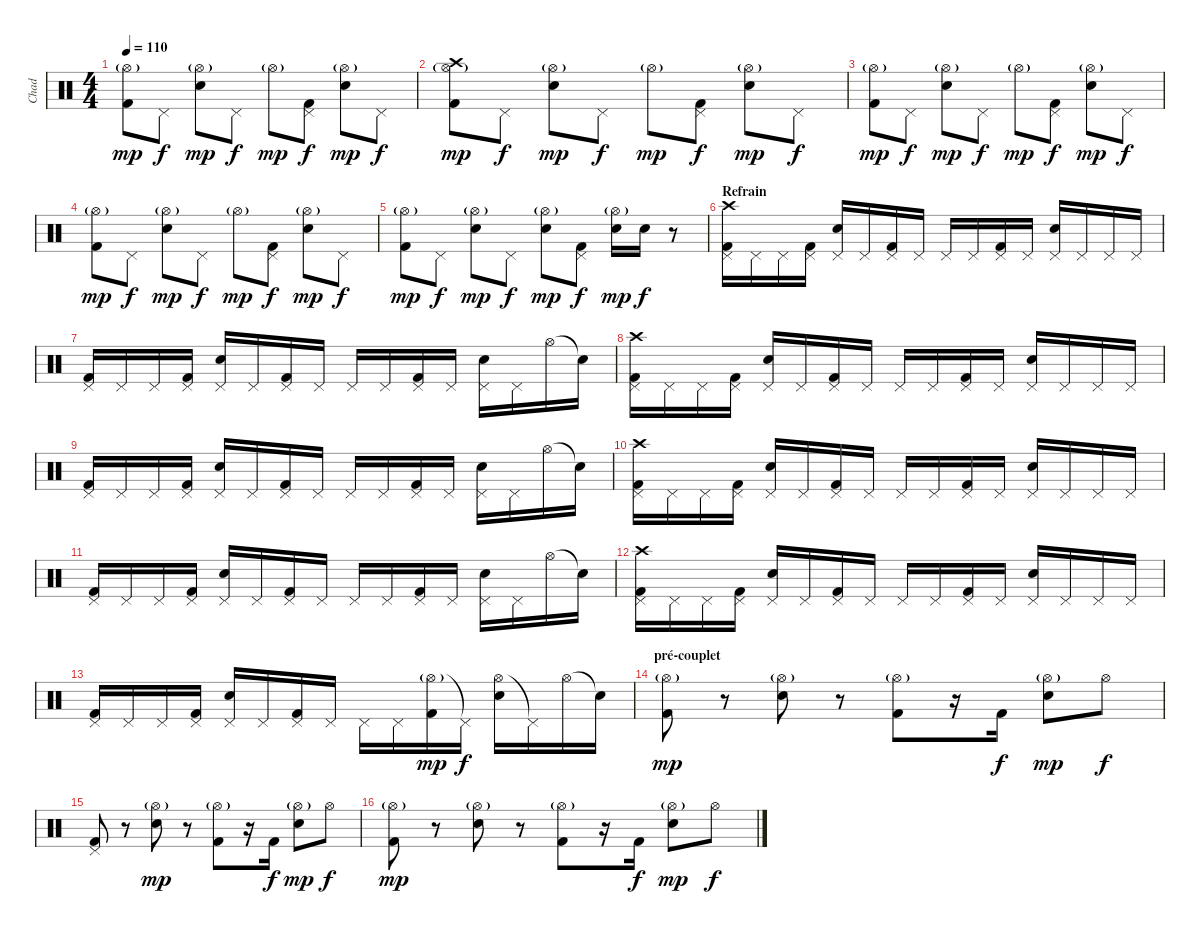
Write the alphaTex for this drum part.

\track ("Chad" "Chad") {instrument percussion}
\staff {score}
\articulation defaults
\ts (4 4)
\tempo 110
\clef neutral
\ks c
("Hi-Hat (open)"{g} "Kick (hit) 2").8{dy mp} "Pedal Hi-Hat (hit)".8{dy f} ("Hi-Hat (open)"{g} "Electric Snare (hit)").8{dy mp} "Pedal Hi-Hat (hit)".8{dy f} "Hi-Hat (open)"{g}.8{dy mp} ("Pedal Hi-Hat (hit)" "Kick (hit) 2").8{dy f} ("Hi-Hat (open)"{g} "Electric Snare (hit)").8{dy mp} "Pedal Hi-Hat (hit)".8{dy f} |
("Crash high (hit)" "Hi-Hat (open)"{g} "Kick (hit) 2").8{dy mp} "Pedal Hi-Hat (hit)".8{dy f} ("Hi-Hat (open)"{g} "Electric Snare (hit)").8{dy mp} "Pedal Hi-Hat (hit)".8{dy f} "Hi-Hat (open)"{g}.8{dy mp} ("Pedal Hi-Hat (hit)" "Kick (hit) 2").8{dy f} ("Hi-Hat (open)"{g} "Electric Snare (hit)").8{dy mp} "Pedal Hi-Hat (hit)".8{dy f} |
("Hi-Hat (open)"{g} "Kick (hit) 2").8{dy mp} "Pedal Hi-Hat (hit)".8{dy f} ("Hi-Hat (open)"{g} "Electric Snare (hit)").8{dy mp} "Pedal Hi-Hat (hit)".8{dy f} "Hi-Hat (open)"{g}.8{dy mp} ("Pedal Hi-Hat (hit)" "Kick (hit) 2").8{dy f} ("Hi-Hat (open)"{g} "Electric Snare (hit)").8{dy mp} "Pedal Hi-Hat (hit)".8{dy f} |
("Hi-Hat (open)"{g} "Kick (hit) 2").8{dy mp} "Pedal Hi-Hat (hit)".8{dy f} ("Hi-Hat (open)"{g} "Electric Snare (hit)").8{dy mp} "Pedal Hi-Hat (hit)".8{dy f} "Hi-Hat (open)"{g}.8{dy mp} ("Pedal Hi-Hat (hit)" "Kick (hit) 2").8{dy f} ("Hi-Hat (open)"{g} "Electric Snare (hit)").8{dy mp} "Pedal Hi-Hat (hit)".8{dy f} |
("Hi-Hat (open)"{g} "Kick (hit) 2").8{dy mp} "Pedal Hi-Hat (hit)".8{dy f} ("Hi-Hat (open)"{g} "Electric Snare (hit)").8{dy mp} "Pedal Hi-Hat (hit)".8{dy f} ("Hi-Hat (open)"{g} "Electric Snare (hit)").8{dy mp} ("Pedal Hi-Hat (hit)" "Kick (hit) 2").8{dy f} ("Hi-Hat (open)"{g} "Electric Snare (hit)").16{dy mp} "Electric Snare (hit)".16{dy f} r.8 |
\section ("" "Refrain")
("Crash high (hit)" "Pedal Hi-Hat (hit)" "Kick (hit) 2").16 "Pedal Hi-Hat (hit)".16 "Pedal Hi-Hat (hit)".16 ("Pedal Hi-Hat (hit)" "Kick (hit) 2").16 ("Pedal Hi-Hat (hit)" "Electric Snare (hit)").16 "Pedal Hi-Hat (hit)".16 ("Pedal Hi-Hat (hit)" "Kick (hit) 2").16 "Pedal Hi-Hat (hit)".16 "Pedal Hi-Hat (hit)".16 "Pedal Hi-Hat (hit)".16 ("Pedal Hi-Hat (hit)" "Kick (hit) 2").16 "Pedal Hi-Hat (hit)".16 ("Pedal Hi-Hat (hit)" "Electric Snare (hit)").16 "Pedal Hi-Hat (hit)".16 "Pedal Hi-Hat (hit)".16 "Pedal Hi-Hat (hit)".16 |
("Pedal Hi-Hat (hit)" "Kick (hit) 2").16 "Pedal Hi-Hat (hit)".16 "Pedal Hi-Hat (hit)".16 ("Pedal Hi-Hat (hit)" "Kick (hit) 2").16 ("Pedal Hi-Hat (hit)" "Electric Snare (hit)").16 "Pedal Hi-Hat (hit)".16 ("Pedal Hi-Hat (hit)" "Kick (hit) 2").16 "Pedal Hi-Hat (hit)".16 "Pedal Hi-Hat (hit)".16 "Pedal Hi-Hat (hit)".16 ("Pedal Hi-Hat (hit)" "Kick (hit) 2").16 "Pedal Hi-Hat (hit)".16 ("Pedal Hi-Hat (hit)" "Electric Snare (hit)").16 "Pedal Hi-Hat (hit)".16 "Hi-Hat (open)".16 "Snare (hit)"{t}.16 |
("Crash high (hit)" "Pedal Hi-Hat (hit)" "Kick (hit) 2").16 "Pedal Hi-Hat (hit)".16 "Pedal Hi-Hat (hit)".16 ("Pedal Hi-Hat (hit)" "Kick (hit) 2").16 ("Pedal Hi-Hat (hit)" "Electric Snare (hit)").16 "Pedal Hi-Hat (hit)".16 ("Pedal Hi-Hat (hit)" "Kick (hit) 2").16 "Pedal Hi-Hat (hit)".16 "Pedal Hi-Hat (hit)".16 "Pedal Hi-Hat (hit)".16 ("Pedal Hi-Hat (hit)" "Kick (hit) 2").16 "Pedal Hi-Hat (hit)".16 ("Pedal Hi-Hat (hit)" "Electric Snare (hit)").16 "Pedal Hi-Hat (hit)".16 "Pedal Hi-Hat (hit)".16 "Pedal Hi-Hat (hit)".16 |
("Pedal Hi-Hat (hit)" "Kick (hit) 2").16 "Pedal Hi-Hat (hit)".16 "Pedal Hi-Hat (hit)".16 ("Pedal Hi-Hat (hit)" "Kick (hit) 2").16 ("Pedal Hi-Hat (hit)" "Electric Snare (hit)").16 "Pedal Hi-Hat (hit)".16 ("Pedal Hi-Hat (hit)" "Kick (hit) 2").16 "Pedal Hi-Hat (hit)".16 "Pedal Hi-Hat (hit)".16 "Pedal Hi-Hat (hit)".16 ("Pedal Hi-Hat (hit)" "Kick (hit) 2").16 "Pedal Hi-Hat (hit)".16 ("Pedal Hi-Hat (hit)" "Electric Snare (hit)").16 "Pedal Hi-Hat (hit)".16 "Hi-Hat (open)".16 "Snare (hit)"{t}.16 |
("Crash high (hit)" "Pedal Hi-Hat (hit)" "Kick (hit) 2").16 "Pedal Hi-Hat (hit)".16 "Pedal Hi-Hat (hit)".16 ("Pedal Hi-Hat (hit)" "Kick (hit) 2").16 ("Pedal Hi-Hat (hit)" "Electric Snare (hit)").16 "Pedal Hi-Hat (hit)".16 ("Pedal Hi-Hat (hit)" "Kick (hit) 2").16 "Pedal Hi-Hat (hit)".16 "Pedal Hi-Hat (hit)".16 "Pedal Hi-Hat (hit)".16 ("Pedal Hi-Hat (hit)" "Kick (hit) 2").16 "Pedal Hi-Hat (hit)".16 ("Pedal Hi-Hat (hit)" "Electric Snare (hit)").16 "Pedal Hi-Hat (hit)".16 "Pedal Hi-Hat (hit)".16 "Pedal Hi-Hat (hit)".16 |
("Pedal Hi-Hat (hit)" "Kick (hit) 2").16 "Pedal Hi-Hat (hit)".16 "Pedal Hi-Hat (hit)".16 ("Pedal Hi-Hat (hit)" "Kick (hit) 2").16 ("Pedal Hi-Hat (hit)" "Electric Snare (hit)").16 "Pedal Hi-Hat (hit)".16 ("Pedal Hi-Hat (hit)" "Kick (hit) 2").16 "Pedal Hi-Hat (hit)".16 "Pedal Hi-Hat (hit)".16 "Pedal Hi-Hat (hit)".16 ("Pedal Hi-Hat (hit)" "Kick (hit) 2").16 "Pedal Hi-Hat (hit)".16 ("Pedal Hi-Hat (hit)" "Electric Snare (hit)").16 "Pedal Hi-Hat (hit)".16 "Hi-Hat (open)".16 "Snare (hit)"{t}.16 |
("Crash high (hit)" "Pedal Hi-Hat (hit)" "Kick (hit) 2").16 "Pedal Hi-Hat (hit)".16 "Pedal Hi-Hat (hit)".16 ("Pedal Hi-Hat (hit)" "Kick (hit) 2").16 ("Pedal Hi-Hat (hit)" "Electric Snare (hit)").16 "Pedal Hi-Hat (hit)".16 ("Pedal Hi-Hat (hit)" "Kick (hit) 2").16 "Pedal Hi-Hat (hit)".16 "Pedal Hi-Hat (hit)".16 "Pedal Hi-Hat (hit)".16 ("Pedal Hi-Hat (hit)" "Kick (hit) 2").16 "Pedal Hi-Hat (hit)".16 ("Pedal Hi-Hat (hit)" "Electric Snare (hit)").16 "Pedal Hi-Hat (hit)".16 "Pedal Hi-Hat (hit)".16 "Pedal Hi-Hat (hit)".16 |
("Pedal Hi-Hat (hit)" "Kick (hit) 2").16 "Pedal Hi-Hat (hit)".16 "Pedal Hi-Hat (hit)".16 ("Pedal Hi-Hat (hit)" "Kick (hit) 2").16 ("Pedal Hi-Hat (hit)" "Electric Snare (hit)").16 "Pedal Hi-Hat (hit)".16 ("Pedal Hi-Hat (hit)" "Kick (hit) 2").16 "Pedal Hi-Hat (hit)".16 "Pedal Hi-Hat (hit)".16 "Pedal Hi-Hat (hit)".16 ("Hi-Hat (open)"{g} "Kick (hit) 2").16{dy mp} "Pedal Hi-Hat (hit)"{t}.16{dy f} ("Hi-Hat (open)" "Electric Snare (hit)").16 "Pedal Hi-Hat (hit)"{t}.16 "Hi-Hat (open)".16 "Snare (hit)"{t}.16 |
\section ("" "pré-couplet")
("Hi-Hat (open)"{g} "Kick (hit) 2").8{dy mp} r.8 ("Hi-Hat (open)"{g} "Electric Snare (hit)").8 r.8 ("Hi-Hat (open)"{g} "Kick (hit) 2").8 r.16 "Kick (hit) 2".16{dy f} ("Hi-Hat (open)"{g} "Electric Snare (hit)").8{dy mp} "Hi-Hat (open)".8{dy f} |
("Pedal Hi-Hat (hit)" "Kick (hit) 2").8 r.8 ("Hi-Hat (open)"{g} "Electric Snare (hit)").8{dy mp} r.8 ("Hi-Hat (open)"{g} "Kick (hit) 2").8 r.16 "Kick (hit) 2".16{dy f} ("Hi-Hat (open)"{g} "Electric Snare (hit)").8{dy mp} "Hi-Hat (open)".8{dy f} |
("Hi-Hat (open)"{g} "Kick (hit) 2").8{dy mp} r.8 ("Hi-Hat (open)"{g} "Electric Snare (hit)").8 r.8 ("Hi-Hat (open)"{g} "Kick (hit) 2").8 r.16 "Kick (hit) 2".16{dy f} ("Hi-Hat (open)"{g} "Electric Snare (hit)").8{dy mp} "Hi-Hat (open)".8{dy f}
